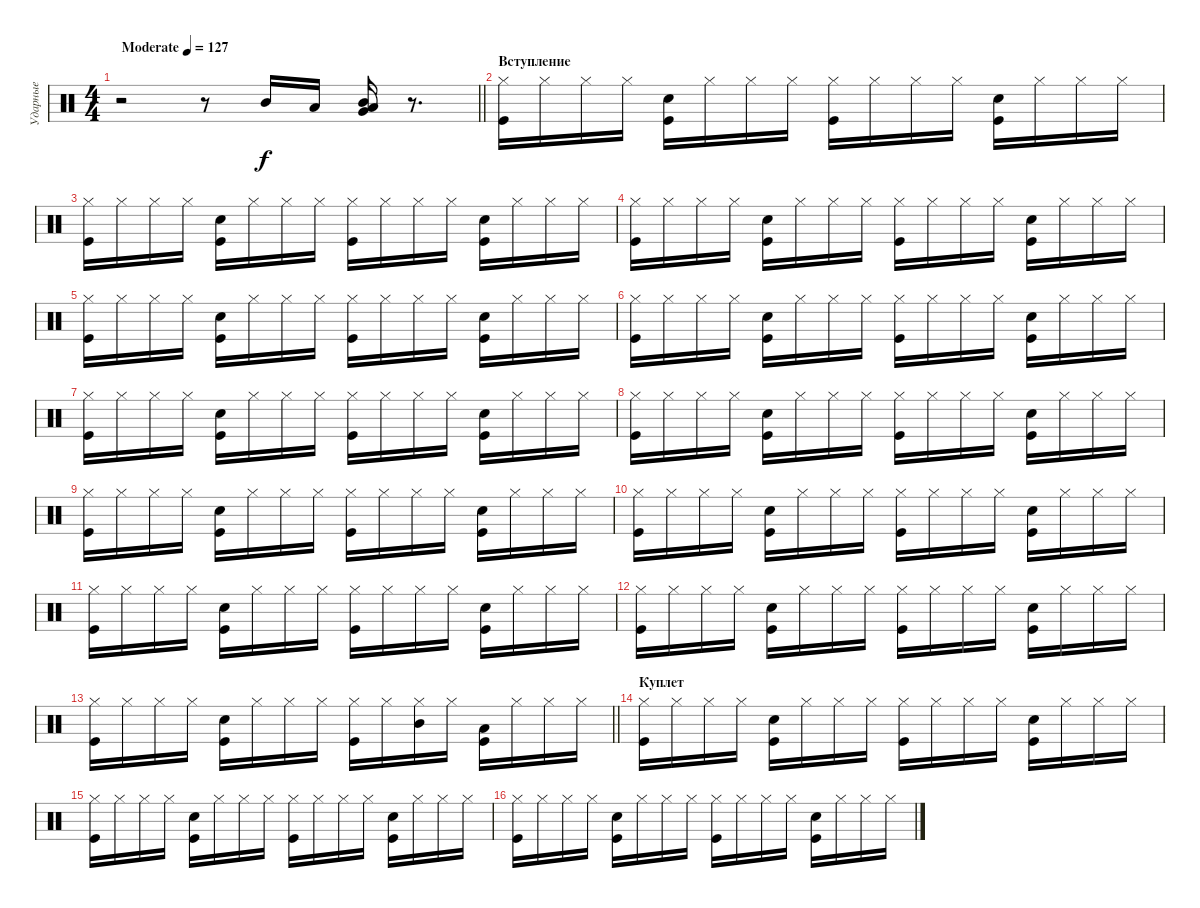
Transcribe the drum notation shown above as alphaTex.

\track ("Ударные" "Ударные") {solo instrument percussion}
\staff {score}
\articulation defaults
\ts (4 4)
\tempo (127 "Moderate")
\clef neutral
\barLineRight lightlight
\ks c
r.2{dy f} r.8 "Mid Tom (hit)".16 "Low Tom (hit)".16 ("Very Low Tom (hit)" "Low Tom (hit)" "Mid Tom (hit)").16 r.8{d} |
\section ("" "Вступление")
("Hi-Hat (closed)" "Kick (hit)").16 "Hi-Hat (closed)".16 "Hi-Hat (closed)".16 "Hi-Hat (closed)".16 ("Kick (hit)" "Snare (hit) 2").16 "Hi-Hat (closed)".16 "Hi-Hat (closed)".16 "Hi-Hat (closed)".16 ("Hi-Hat (closed)" "Kick (hit)").16 "Hi-Hat (closed)".16 "Hi-Hat (closed)".16 "Hi-Hat (closed)".16 ("Kick (hit)" "Snare (hit) 2").16 "Hi-Hat (closed)".16 "Hi-Hat (closed)".16 "Hi-Hat (closed)".16 |
("Hi-Hat (closed)" "Kick (hit)").16 "Hi-Hat (closed)".16 "Hi-Hat (closed)".16 "Hi-Hat (closed)".16 ("Kick (hit)" "Snare (hit) 2").16 "Hi-Hat (closed)".16 "Hi-Hat (closed)".16 "Hi-Hat (closed)".16 ("Hi-Hat (closed)" "Kick (hit)").16 "Hi-Hat (closed)".16 "Hi-Hat (closed)".16 "Hi-Hat (closed)".16 ("Kick (hit)" "Snare (hit) 2").16 "Hi-Hat (closed)".16 "Hi-Hat (closed)".16 "Hi-Hat (closed)".16 |
("Hi-Hat (closed)" "Kick (hit)").16 "Hi-Hat (closed)".16 "Hi-Hat (closed)".16 "Hi-Hat (closed)".16 ("Kick (hit)" "Snare (hit) 2").16 "Hi-Hat (closed)".16 "Hi-Hat (closed)".16 "Hi-Hat (closed)".16 ("Hi-Hat (closed)" "Kick (hit)").16 "Hi-Hat (closed)".16 "Hi-Hat (closed)".16 "Hi-Hat (closed)".16 ("Kick (hit)" "Snare (hit) 2").16 "Hi-Hat (closed)".16 "Hi-Hat (closed)".16 "Hi-Hat (closed)".16 |
("Hi-Hat (closed)" "Kick (hit)").16 "Hi-Hat (closed)".16 "Hi-Hat (closed)".16 "Hi-Hat (closed)".16 ("Kick (hit)" "Snare (hit) 2").16 "Hi-Hat (closed)".16 "Hi-Hat (closed)".16 "Hi-Hat (closed)".16 ("Hi-Hat (closed)" "Kick (hit)").16 "Hi-Hat (closed)".16 "Hi-Hat (closed)".16 "Hi-Hat (closed)".16 ("Kick (hit)" "Snare (hit) 2").16 "Hi-Hat (closed)".16 "Hi-Hat (closed)".16 "Hi-Hat (closed)".16 |
("Hi-Hat (closed)" "Kick (hit)").16 "Hi-Hat (closed)".16 "Hi-Hat (closed)".16 "Hi-Hat (closed)".16 ("Kick (hit)" "Snare (hit) 2").16 "Hi-Hat (closed)".16 "Hi-Hat (closed)".16 "Hi-Hat (closed)".16 ("Hi-Hat (closed)" "Kick (hit)").16 "Hi-Hat (closed)".16 "Hi-Hat (closed)".16 "Hi-Hat (closed)".16 ("Kick (hit)" "Snare (hit) 2").16 "Hi-Hat (closed)".16 "Hi-Hat (closed)".16 "Hi-Hat (closed)".16 |
("Hi-Hat (closed)" "Kick (hit)").16 "Hi-Hat (closed)".16 "Hi-Hat (closed)".16 "Hi-Hat (closed)".16 ("Kick (hit)" "Snare (hit) 2").16 "Hi-Hat (closed)".16 "Hi-Hat (closed)".16 "Hi-Hat (closed)".16 ("Hi-Hat (closed)" "Kick (hit)").16 "Hi-Hat (closed)".16 "Hi-Hat (closed)".16 "Hi-Hat (closed)".16 ("Kick (hit)" "Snare (hit) 2").16 "Hi-Hat (closed)".16 "Hi-Hat (closed)".16 "Hi-Hat (closed)".16 |
("Hi-Hat (closed)" "Kick (hit)").16 "Hi-Hat (closed)".16 "Hi-Hat (closed)".16 "Hi-Hat (closed)".16 ("Kick (hit)" "Snare (hit) 2").16 "Hi-Hat (closed)".16 "Hi-Hat (closed)".16 "Hi-Hat (closed)".16 ("Hi-Hat (closed)" "Kick (hit)").16 "Hi-Hat (closed)".16 "Hi-Hat (closed)".16 "Hi-Hat (closed)".16 ("Kick (hit)" "Snare (hit) 2").16 "Hi-Hat (closed)".16 "Hi-Hat (closed)".16 "Hi-Hat (closed)".16 |
("Hi-Hat (closed)" "Kick (hit)").16 "Hi-Hat (closed)".16 "Hi-Hat (closed)".16 "Hi-Hat (closed)".16 ("Kick (hit)" "Snare (hit) 2").16 "Hi-Hat (closed)".16 "Hi-Hat (closed)".16 "Hi-Hat (closed)".16 ("Hi-Hat (closed)" "Kick (hit)").16 "Hi-Hat (closed)".16 "Hi-Hat (closed)".16 "Hi-Hat (closed)".16 ("Kick (hit)" "Snare (hit) 2").16 "Hi-Hat (closed)".16 "Hi-Hat (closed)".16 "Hi-Hat (closed)".16 |
("Hi-Hat (closed)" "Kick (hit)").16 "Hi-Hat (closed)".16 "Hi-Hat (closed)".16 "Hi-Hat (closed)".16 ("Kick (hit)" "Snare (hit) 2").16 "Hi-Hat (closed)".16 "Hi-Hat (closed)".16 "Hi-Hat (closed)".16 ("Hi-Hat (closed)" "Kick (hit)").16 "Hi-Hat (closed)".16 "Hi-Hat (closed)".16 "Hi-Hat (closed)".16 ("Kick (hit)" "Snare (hit) 2").16 "Hi-Hat (closed)".16 "Hi-Hat (closed)".16 "Hi-Hat (closed)".16 |
("Hi-Hat (closed)" "Kick (hit)").16 "Hi-Hat (closed)".16 "Hi-Hat (closed)".16 "Hi-Hat (closed)".16 ("Kick (hit)" "Snare (hit) 2").16 "Hi-Hat (closed)".16 "Hi-Hat (closed)".16 "Hi-Hat (closed)".16 ("Hi-Hat (closed)" "Kick (hit)").16 "Hi-Hat (closed)".16 "Hi-Hat (closed)".16 "Hi-Hat (closed)".16 ("Kick (hit)" "Snare (hit) 2").16 "Hi-Hat (closed)".16 "Hi-Hat (closed)".16 "Hi-Hat (closed)".16 |
("Hi-Hat (closed)" "Kick (hit)").16 "Hi-Hat (closed)".16 "Hi-Hat (closed)".16 "Hi-Hat (closed)".16 ("Kick (hit)" "Snare (hit) 2").16 "Hi-Hat (closed)".16 "Hi-Hat (closed)".16 "Hi-Hat (closed)".16 ("Hi-Hat (closed)" "Kick (hit)").16 "Hi-Hat (closed)".16 "Hi-Hat (closed)".16 "Hi-Hat (closed)".16 ("Kick (hit)" "Snare (hit) 2").16 "Hi-Hat (closed)".16 "Hi-Hat (closed)".16 "Hi-Hat (closed)".16 |
\barLineRight lightlight
("Hi-Hat (closed)" "Kick (hit)").16 "Hi-Hat (closed)".16 "Hi-Hat (closed)".16 "Hi-Hat (closed)".16 ("Kick (hit)" "Snare (hit) 2").16 "Hi-Hat (closed)".16 "Hi-Hat (closed)".16 "Hi-Hat (closed)".16 ("Hi-Hat (closed)" "Kick (hit)").16 "Hi-Hat (closed)".16 ("Hi-Hat (closed)" "Mid Tom (hit)").16 "Hi-Hat (closed)".16 ("Kick (hit)" "Low Tom (hit)").16 "Hi-Hat (closed)".16 "Hi-Hat (closed)".16 "Hi-Hat (closed)".16 |
\section ("" "Куплет")
("Hi-Hat (closed)" "Kick (hit)").16 "Hi-Hat (closed)".16 "Hi-Hat (closed)".16 "Hi-Hat (closed)".16 ("Kick (hit)" "Snare (hit) 2").16 "Hi-Hat (closed)".16 "Hi-Hat (closed)".16 "Hi-Hat (closed)".16 ("Hi-Hat (closed)" "Kick (hit)").16 "Hi-Hat (closed)".16 "Hi-Hat (closed)".16 "Hi-Hat (closed)".16 ("Kick (hit)" "Snare (hit) 2").16 "Hi-Hat (closed)".16 "Hi-Hat (closed)".16 "Hi-Hat (closed)".16 |
("Hi-Hat (closed)" "Kick (hit)").16 "Hi-Hat (closed)".16 "Hi-Hat (closed)".16 "Hi-Hat (closed)".16 ("Kick (hit)" "Snare (hit) 2").16 "Hi-Hat (closed)".16 "Hi-Hat (closed)".16 "Hi-Hat (closed)".16 ("Hi-Hat (closed)" "Kick (hit)").16 "Hi-Hat (closed)".16 "Hi-Hat (closed)".16 "Hi-Hat (closed)".16 ("Kick (hit)" "Snare (hit) 2").16 "Hi-Hat (closed)".16 "Hi-Hat (closed)".16 "Hi-Hat (closed)".16 |
("Hi-Hat (closed)" "Kick (hit)").16 "Hi-Hat (closed)".16 "Hi-Hat (closed)".16 "Hi-Hat (closed)".16 ("Kick (hit)" "Snare (hit) 2").16 "Hi-Hat (closed)".16 "Hi-Hat (closed)".16 "Hi-Hat (closed)".16 ("Hi-Hat (closed)" "Kick (hit)").16 "Hi-Hat (closed)".16 "Hi-Hat (closed)".16 "Hi-Hat (closed)".16 ("Kick (hit)" "Snare (hit) 2").16 "Hi-Hat (closed)".16 "Hi-Hat (closed)".16 "Hi-Hat (closed)".16
